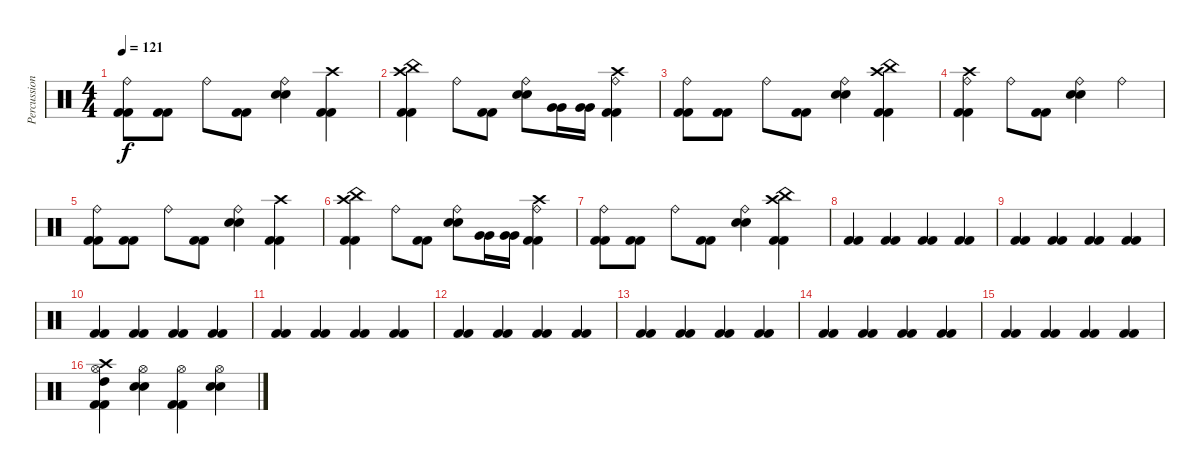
\track ("Percussion" "Percussion") {instrument percussion}
\staff {score}
\articulation defaults
\ts (4 4)
\tempo 121
\clef neutral
\ks c
("Ride (bell)" "Kick (hit) 2" "Kick (hit) 2").8{dy f} ("Kick (hit) 2" "Kick (hit) 2").8 "Ride (bell)".8 ("Kick (hit) 2" "Kick (hit) 2").8 ("Ride (bell)" "Electric Snare (hit)" "Electric Snare (hit)").4 ("Crash high (hit)" "Kick (hit) 2" "Kick (hit) 2").4 |
("China (hit)" "Crash high (hit)" "Kick (hit) 2" "Kick (hit) 2").4 "Ride (bell)".8 ("Kick (hit) 2" "Kick (hit) 2").8 ("Ride (bell)" "Electric Snare (hit)" "Electric Snare (hit)").8 ("Very Low Tom (hit)" "Very Low Tom (hit)").16 ("Very Low Tom (hit)" "Very Low Tom (hit)").16 ("Crash high (hit)" "Ride (bell)" "Kick (hit) 2" "Kick (hit) 2").4 |
("Ride (bell)" "Kick (hit) 2" "Kick (hit) 2").8 ("Kick (hit) 2" "Kick (hit) 2").8 "Ride (bell)".8 ("Kick (hit) 2" "Kick (hit) 2").8 ("Ride (bell)" "Electric Snare (hit)" "Electric Snare (hit)").4 ("Crash high (hit)" "China (hit)" "Kick (hit) 2" "Kick (hit) 2").4 |
("Crash high (hit)" "Ride (bell)" "Kick (hit) 2" "Kick (hit) 2").4 "Ride (bell)".8 ("Kick (hit) 2" "Kick (hit) 2").8 ("Ride (bell)" "Electric Snare (hit)" "Electric Snare (hit)").4 "Ride (bell)".4 |
("Ride (bell)" "Kick (hit) 2" "Kick (hit) 2").8 ("Kick (hit) 2" "Kick (hit) 2").8 "Ride (bell)".8 ("Kick (hit) 2" "Kick (hit) 2").8 ("Ride (bell)" "Electric Snare (hit)" "Electric Snare (hit)").4 ("Crash high (hit)" "Kick (hit) 2" "Kick (hit) 2").4 |
("China (hit)" "Crash high (hit)" "Kick (hit) 2" "Kick (hit) 2").4 "Ride (bell)".8 ("Kick (hit) 2" "Kick (hit) 2").8 ("Ride (bell)" "Electric Snare (hit)" "Electric Snare (hit)").8 ("Very Low Tom (hit)" "Very Low Tom (hit)").16 ("Very Low Tom (hit)" "Very Low Tom (hit)").16 ("Crash high (hit)" "Ride (bell)" "Kick (hit) 2" "Kick (hit) 2").4 |
("Ride (bell)" "Kick (hit) 2" "Kick (hit) 2").8 ("Kick (hit) 2" "Kick (hit) 2").8 "Ride (bell)".8 ("Kick (hit) 2" "Kick (hit) 2").8 ("Ride (bell)" "Electric Snare (hit)" "Electric Snare (hit)").4 ("Crash high (hit)" "China (hit)" "Kick (hit) 2" "Kick (hit) 2").4 |
("Kick (hit) 2" "Kick (hit) 2").4 ("Kick (hit) 2" "Kick (hit) 2").4 ("Kick (hit) 2" "Kick (hit) 2").4 ("Kick (hit) 2" "Kick (hit) 2").4 |
("Kick (hit) 2" "Kick (hit) 2").4 ("Kick (hit) 2" "Kick (hit) 2").4 ("Kick (hit) 2" "Kick (hit) 2").4 ("Kick (hit) 2" "Kick (hit) 2").4 |
("Kick (hit) 2" "Kick (hit) 2").4 ("Kick (hit) 2" "Kick (hit) 2").4 ("Kick (hit) 2" "Kick (hit) 2").4 ("Kick (hit) 2" "Kick (hit) 2").4 |
("Kick (hit) 2" "Kick (hit) 2").4 ("Kick (hit) 2" "Kick (hit) 2").4 ("Kick (hit) 2" "Kick (hit) 2").4 ("Kick (hit) 2" "Kick (hit) 2").4 |
("Kick (hit) 2" "Kick (hit) 2").4 ("Kick (hit) 2" "Kick (hit) 2").4 ("Kick (hit) 2" "Kick (hit) 2").4 ("Kick (hit) 2" "Kick (hit) 2").4 |
("Kick (hit) 2" "Kick (hit) 2").4 ("Kick (hit) 2" "Kick (hit) 2").4 ("Kick (hit) 2" "Kick (hit) 2").4 ("Kick (hit) 2" "Kick (hit) 2").4 |
("Kick (hit) 2" "Kick (hit) 2").4 ("Kick (hit) 2" "Kick (hit) 2").4 ("Kick (hit) 2" "Kick (hit) 2").4 ("Kick (hit) 2" "Kick (hit) 2").4 |
("Kick (hit) 2" "Kick (hit) 2").4 ("Kick (hit) 2" "Kick (hit) 2").4 ("Kick (hit) 2" "Kick (hit) 2").4 ("Kick (hit) 2" "Kick (hit) 2").4 |
("Crash high (hit)" "High Tom (hit)" "Hi-Hat (open)" "Kick (hit) 2" "Kick (hit) 2").4 ("Hi-Hat (open)" "Electric Snare (hit)" "Electric Snare (hit)").4 ("Hi-Hat (open)" "Kick (hit) 2" "Kick (hit) 2").4 ("Hi-Hat (open)" "Electric Snare (hit)" "Electric Snare (hit)").4
